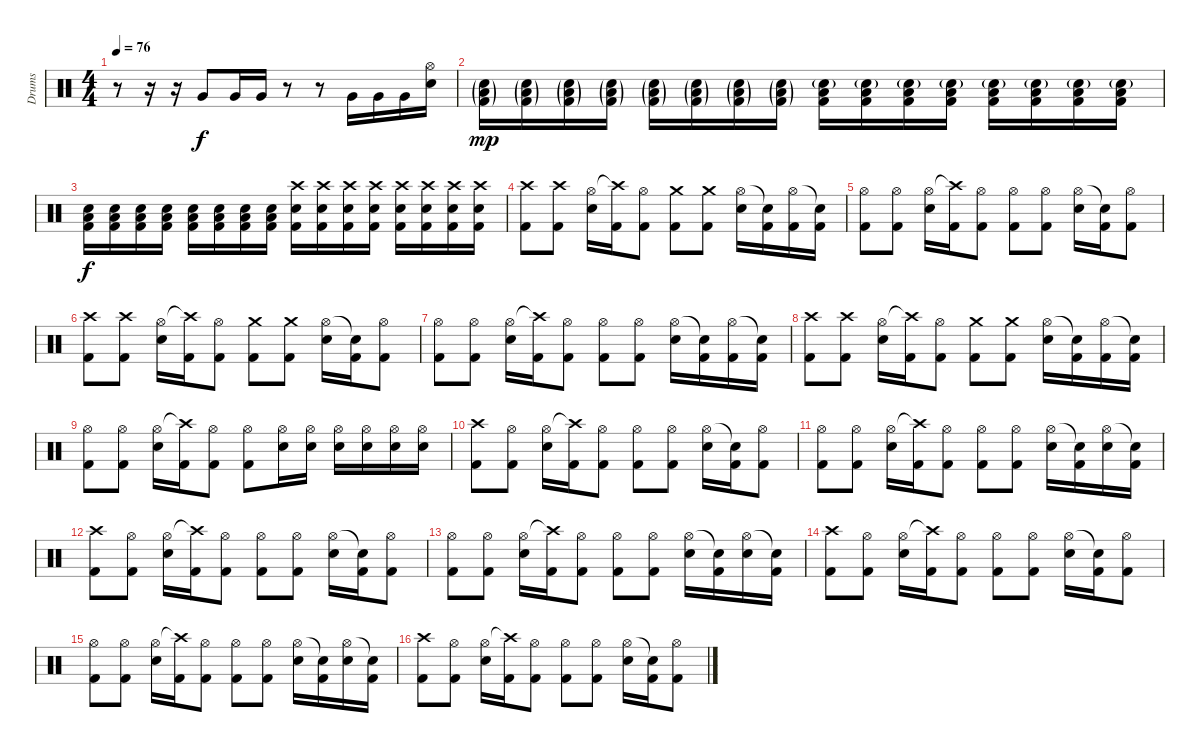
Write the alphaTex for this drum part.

\track ("Drums" "Drums") {instrument percussion}
\staff {score}
\articulation defaults
\ts (4 4)
\tempo 76
\clef neutral
\ks c
r.8{dy f} r.16 r.16 "Very Low Tom (hit)".8 "Very Low Tom (hit)".16 "Very Low Tom (hit)".16 r.8 r.8 "Very Low Tom (hit)".16 "Very Low Tom (hit)".16 "Very Low Tom (hit)".16 ("Hi-Hat (open)" "Electric Snare (hit)").16 |
("Kick (hit) 2"{g} "Low Floor Tom (hit)"{g} "Electric Snare (hit)"{g}).16{dy mp} ("Kick (hit) 2"{g} "Low Floor Tom (hit)"{g} "Electric Snare (hit)"{g}).16 ("Kick (hit) 2"{g} "Low Floor Tom (hit)"{g} "Electric Snare (hit)"{g}).16 ("Kick (hit) 2"{g} "Low Floor Tom (hit)"{g} "Electric Snare (hit)"{g}).16 ("Kick (hit) 2"{g} "Low Floor Tom (hit)"{g} "Electric Snare (hit)"{g}).16 ("Kick (hit) 2"{g} "Low Floor Tom (hit)"{g} "Electric Snare (hit)"{g}).16 ("Kick (hit) 2"{g} "Low Floor Tom (hit)"{g} "Electric Snare (hit)"{g}).16 ("Kick (hit) 2"{g} "Low Floor Tom (hit)"{g} "Electric Snare (hit)"{g}).16 ("Kick (hit) 2" "Low Floor Tom (hit)" "Electric Snare (hit)"{g}).16 ("Kick (hit) 2" "Low Floor Tom (hit)" "Electric Snare (hit)"{g}).16 ("Kick (hit) 2" "Low Floor Tom (hit)" "Electric Snare (hit)"{g}).16 ("Kick (hit) 2" "Low Floor Tom (hit)" "Electric Snare (hit)"{g}).16 ("Kick (hit) 2" "Low Floor Tom (hit)" "Electric Snare (hit)"{g}).16 ("Kick (hit) 2" "Low Floor Tom (hit)" "Electric Snare (hit)"{g}).16 ("Kick (hit) 2" "Low Floor Tom (hit)" "Electric Snare (hit)"{g}).16 ("Kick (hit) 2" "Low Floor Tom (hit)" "Electric Snare (hit)"{g}).16 |
("Kick (hit) 2" "Low Floor Tom (hit)" "Electric Snare (hit)").16{dy f} ("Kick (hit) 2" "Low Floor Tom (hit)" "Electric Snare (hit)").16 ("Kick (hit) 2" "Low Floor Tom (hit)" "Electric Snare (hit)").16 ("Kick (hit) 2" "Low Floor Tom (hit)" "Electric Snare (hit)").16 ("Kick (hit) 2" "Low Floor Tom (hit)" "Electric Snare (hit)").16 ("Kick (hit) 2" "Low Floor Tom (hit)" "Electric Snare (hit)").16 ("Kick (hit) 2" "Low Floor Tom (hit)" "Electric Snare (hit)").16 ("Kick (hit) 2" "Low Floor Tom (hit)" "Electric Snare (hit)").16 ("Kick (hit) 2" "Crash high (hit)" "Electric Snare (hit)").16 ("Kick (hit) 2" "Crash high (hit)" "Electric Snare (hit)").16 ("Kick (hit) 2" "Crash high (hit)" "Electric Snare (hit)").16 ("Kick (hit) 2" "Crash high (hit)" "Electric Snare (hit)").16 ("Kick (hit) 2" "Crash high (hit)" "Electric Snare (hit)").16 ("Kick (hit) 2" "Crash high (hit)" "Electric Snare (hit)").16 ("Kick (hit) 2" "Crash high (hit)" "Electric Snare (hit)").16 ("Kick (hit) 2" "Crash high (hit)" "Electric Snare (hit)").16 |
("Crash high (hit)" "Kick (hit) 2").8 ("Crash high (hit)" "Kick (hit) 2").8 ("Hi-Hat (open)" "Electric Snare (hit)").16 ("Crash high (hit)"{t} "Kick (hit) 2").16 ("Hi-Hat (open)" "Kick (hit) 2").8 ("Crash medium (hit)" "Kick (hit) 2").8 ("Crash medium (hit)" "Kick (hit) 2").8 ("Hi-Hat (open)" "Electric Snare (hit)").16 ("Snare (hit)"{t} "Kick (hit) 2").16 ("Hi-Hat (open)" "Kick (hit) 2").16 ("Snare (hit)"{t} "Kick (hit) 2").16 |
("Hi-Hat (open)" "Kick (hit) 2").8 ("Hi-Hat (open)" "Kick (hit) 2").8 ("Hi-Hat (open)" "Electric Snare (hit)").16 ("Crash high (hit)"{t} "Kick (hit) 2").16 ("Hi-Hat (open)" "Kick (hit) 2").8 ("Hi-Hat (open)" "Kick (hit) 2").8 ("Hi-Hat (open)" "Kick (hit) 2").8 ("Hi-Hat (open)" "Electric Snare (hit)").16 ("Snare (hit)"{t} "Kick (hit) 2").16 ("Hi-Hat (open)" "Kick (hit) 2").8 |
("Crash high (hit)" "Kick (hit) 2").8 ("Crash high (hit)" "Kick (hit) 2").8 ("Hi-Hat (open)" "Electric Snare (hit)").16 ("Crash high (hit)"{t} "Kick (hit) 2").16 ("Hi-Hat (open)" "Kick (hit) 2").8 ("Crash medium (hit)" "Kick (hit) 2").8 ("Crash medium (hit)" "Kick (hit) 2").8 ("Hi-Hat (open)" "Electric Snare (hit)").16 ("Snare (hit)"{t} "Kick (hit) 2").16 ("Hi-Hat (open)" "Kick (hit) 2").8 |
("Hi-Hat (open)" "Kick (hit) 2").8 ("Hi-Hat (open)" "Kick (hit) 2").8 ("Hi-Hat (open)" "Electric Snare (hit)").16 ("Crash high (hit)"{t} "Kick (hit) 2").16 ("Hi-Hat (open)" "Kick (hit) 2").8 ("Hi-Hat (open)" "Kick (hit) 2").8 ("Hi-Hat (open)" "Kick (hit) 2").8 ("Hi-Hat (open)" "Electric Snare (hit)").16 ("Snare (hit)"{t} "Kick (hit) 2").16 ("Hi-Hat (open)" "Kick (hit) 2").16 ("Snare (hit)"{t} "Kick (hit) 2").16 |
("Crash high (hit)" "Kick (hit) 2").8 ("Crash high (hit)" "Kick (hit) 2").8 ("Hi-Hat (open)" "Electric Snare (hit)").16 ("Crash high (hit)"{t} "Kick (hit) 2").16 ("Hi-Hat (open)" "Kick (hit) 2").8 ("Crash medium (hit)" "Kick (hit) 2").8 ("Crash medium (hit)" "Kick (hit) 2").8 ("Hi-Hat (open)" "Electric Snare (hit)").16 ("Snare (hit)"{t} "Kick (hit) 2").16 ("Hi-Hat (open)" "Kick (hit) 2").16 ("Snare (hit)"{t} "Kick (hit) 2").16 |
("Hi-Hat (open)" "Kick (hit) 2").8 ("Hi-Hat (open)" "Kick (hit) 2").8 ("Hi-Hat (open)" "Electric Snare (hit)").16 ("Crash high (hit)"{t} "Kick (hit) 2").16 ("Hi-Hat (open)" "Kick (hit) 2").8 ("Hi-Hat (open)" "Kick (hit) 2").8 ("Hi-Hat (open)" "Electric Snare (hit)").16 ("Hi-Hat (open)" "Electric Snare (hit)").16 ("Hi-Hat (open)" "Electric Snare (hit)").16 ("Hi-Hat (open)" "Electric Snare (hit)").16 ("Hi-Hat (open)" "Electric Snare (hit)").16 ("Hi-Hat (open)" "Electric Snare (hit)").16 |
("Crash high (hit)" "Kick (hit) 2").8 ("Hi-Hat (open)" "Kick (hit) 2").8 ("Hi-Hat (open)" "Electric Snare (hit)").16 ("Crash high (hit)"{t} "Kick (hit) 2").16 ("Hi-Hat (open)" "Kick (hit) 2").8 ("Hi-Hat (open)" "Kick (hit) 2").8 ("Hi-Hat (open)" "Kick (hit) 2").8 ("Hi-Hat (open)" "Electric Snare (hit)").16 ("Snare (hit)"{t} "Kick (hit) 2").16 ("Hi-Hat (open)" "Kick (hit) 2").8 |
("Hi-Hat (open)" "Kick (hit) 2").8 ("Hi-Hat (open)" "Kick (hit) 2").8 ("Hi-Hat (open)" "Electric Snare (hit)").16 ("Crash high (hit)"{t} "Kick (hit) 2").16 ("Hi-Hat (open)" "Kick (hit) 2").8 ("Hi-Hat (open)" "Kick (hit) 2").8 ("Hi-Hat (open)" "Kick (hit) 2").8 ("Hi-Hat (open)" "Electric Snare (hit)").16 ("Snare (hit)"{t} "Kick (hit) 2").16 ("Hi-Hat (open)" "Electric Snare (hit)").16 ("Snare (hit)"{t} "Kick (hit) 2").16 |
("Crash high (hit)" "Kick (hit) 2").8 ("Hi-Hat (open)" "Kick (hit) 2").8 ("Hi-Hat (open)" "Electric Snare (hit)").16 ("Crash high (hit)"{t} "Kick (hit) 2").16 ("Hi-Hat (open)" "Kick (hit) 2").8 ("Hi-Hat (open)" "Kick (hit) 2").8 ("Hi-Hat (open)" "Kick (hit) 2").8 ("Hi-Hat (open)" "Electric Snare (hit)").16 ("Snare (hit)"{t} "Kick (hit) 2").16 ("Hi-Hat (open)" "Kick (hit) 2").8 |
("Hi-Hat (open)" "Kick (hit) 2").8 ("Hi-Hat (open)" "Kick (hit) 2").8 ("Hi-Hat (open)" "Electric Snare (hit)").16 ("Crash high (hit)"{t} "Kick (hit) 2").16 ("Hi-Hat (open)" "Kick (hit) 2").8 ("Hi-Hat (open)" "Kick (hit) 2").8 ("Hi-Hat (open)" "Kick (hit) 2").8 ("Hi-Hat (open)" "Electric Snare (hit)").16 ("Snare (hit)"{t} "Kick (hit) 2").16 ("Hi-Hat (open)" "Electric Snare (hit)").16 ("Snare (hit)"{t} "Kick (hit) 2").16 |
("Crash high (hit)" "Kick (hit) 2").8 ("Hi-Hat (open)" "Kick (hit) 2").8 ("Hi-Hat (open)" "Electric Snare (hit)").16 ("Crash high (hit)"{t} "Kick (hit) 2").16 ("Hi-Hat (open)" "Kick (hit) 2").8 ("Hi-Hat (open)" "Kick (hit) 2").8 ("Hi-Hat (open)" "Kick (hit) 2").8 ("Hi-Hat (open)" "Electric Snare (hit)").16 ("Snare (hit)"{t} "Kick (hit) 2").16 ("Hi-Hat (open)" "Kick (hit) 2").8 |
("Hi-Hat (open)" "Kick (hit) 2").8 ("Hi-Hat (open)" "Kick (hit) 2").8 ("Hi-Hat (open)" "Electric Snare (hit)").16 ("Crash high (hit)"{t} "Kick (hit) 2").16 ("Hi-Hat (open)" "Kick (hit) 2").8 ("Hi-Hat (open)" "Kick (hit) 2").8 ("Hi-Hat (open)" "Kick (hit) 2").8 ("Hi-Hat (open)" "Electric Snare (hit)").16 ("Snare (hit)"{t} "Kick (hit) 2").16 ("Hi-Hat (open)" "Electric Snare (hit)").16 ("Snare (hit)"{t} "Kick (hit) 2").16 |
("Crash high (hit)" "Kick (hit) 2").8 ("Hi-Hat (open)" "Kick (hit) 2").8 ("Hi-Hat (open)" "Electric Snare (hit)").16 ("Crash high (hit)"{t} "Kick (hit) 2").16 ("Hi-Hat (open)" "Kick (hit) 2").8 ("Hi-Hat (open)" "Kick (hit) 2").8 ("Hi-Hat (open)" "Kick (hit) 2").8 ("Hi-Hat (open)" "Electric Snare (hit)").16 ("Snare (hit)"{t} "Kick (hit) 2").16 ("Hi-Hat (open)" "Kick (hit) 2").8
